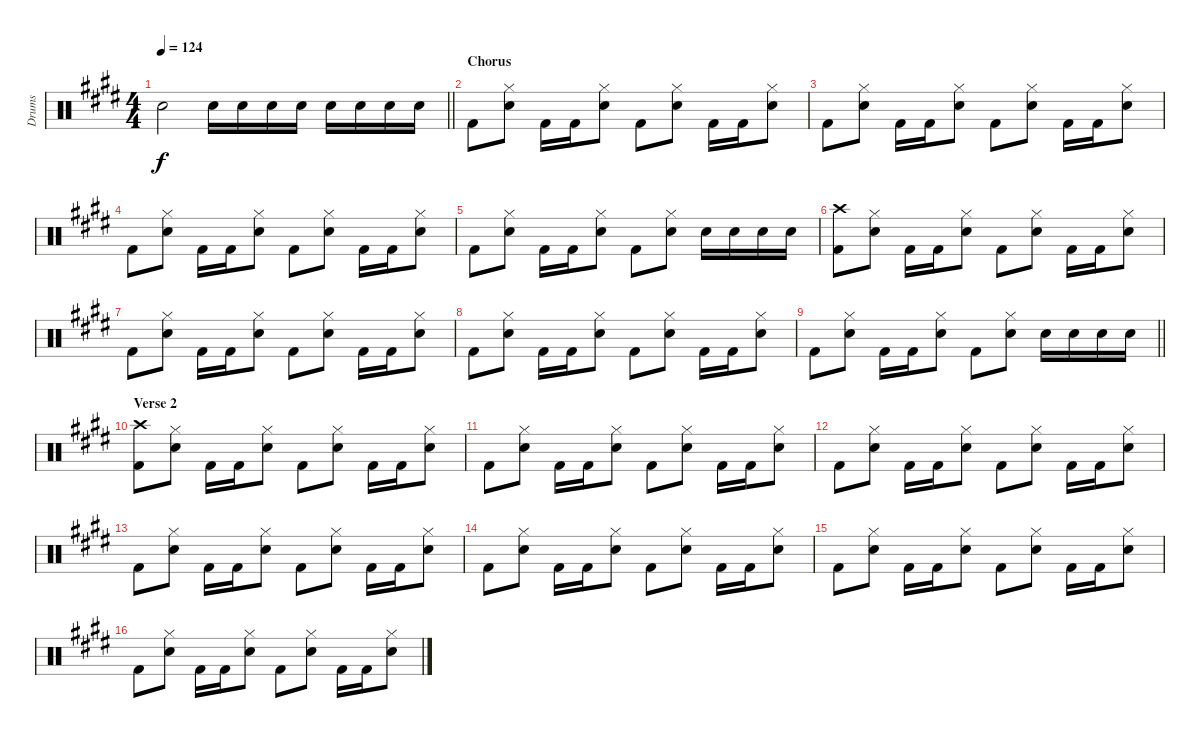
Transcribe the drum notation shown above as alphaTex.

\track ("Drums" "Drums") {instrument percussion}
\staff {score}
\articulation defaults
\ts (4 4)
\tempo 124
\clef neutral
\barLineRight lightlight
\ks c#minor "Snare (hit)"{t}.2{dy f} "Electric Snare (hit)".16 "Electric Snare (hit)".16 "Electric Snare (hit)".16 "Electric Snare (hit)".16 "Electric Snare (hit)".16 "Electric Snare (hit)".16 "Electric Snare (hit)".16 "Electric Snare (hit)".16
|
\section ("" "Chorus")
"Kick (hit) 2".8 ("Snare (hit) 2" "Hi-Hat (closed)").8 "Kick (hit) 2".16 "Kick (hit) 2".16 ("Snare (hit) 2" "Hi-Hat (closed)").8 "Kick (hit) 2".8 ("Snare (hit) 2" "Hi-Hat (closed)").8 "Kick (hit) 2".16 "Kick (hit) 2".16 ("Snare (hit) 2" "Hi-Hat (closed)").8 |
"Kick (hit) 2".8 ("Snare (hit) 2" "Hi-Hat (closed)").8 "Kick (hit) 2".16 "Kick (hit) 2".16 ("Snare (hit) 2" "Hi-Hat (closed)").8 "Kick (hit) 2".8 ("Snare (hit) 2" "Hi-Hat (closed)").8 "Kick (hit) 2".16 "Kick (hit) 2".16 ("Snare (hit) 2" "Hi-Hat (closed)").8 |
"Kick (hit) 2".8 ("Snare (hit) 2" "Hi-Hat (closed)").8 "Kick (hit) 2".16 "Kick (hit) 2".16 ("Snare (hit) 2" "Hi-Hat (closed)").8 "Kick (hit) 2".8 ("Snare (hit) 2" "Hi-Hat (closed)").8 "Kick (hit) 2".16 "Kick (hit) 2".16 ("Snare (hit) 2" "Hi-Hat (closed)").8 |
"Kick (hit) 2".8 ("Snare (hit) 2" "Hi-Hat (closed)").8 "Kick (hit) 2".16 "Kick (hit) 2".16 ("Snare (hit) 2" "Hi-Hat (closed)").8 "Kick (hit) 2".8 ("Snare (hit) 2" "Hi-Hat (closed)").8 "Electric Snare (hit)".16 "Electric Snare (hit)".16 "Electric Snare (hit)".16 "Electric Snare (hit)".16 |
("Kick (hit) 2" "Crash high (hit)").8 ("Snare (hit) 2" "Hi-Hat (closed)").8 "Kick (hit) 2".16 "Kick (hit) 2".16 ("Snare (hit) 2" "Hi-Hat (closed)").8 "Kick (hit) 2".8 ("Snare (hit) 2" "Hi-Hat (closed)").8 "Kick (hit) 2".16 "Kick (hit) 2".16 ("Snare (hit) 2" "Hi-Hat (closed)").8 |
"Kick (hit) 2".8 ("Snare (hit) 2" "Hi-Hat (closed)").8 "Kick (hit) 2".16 "Kick (hit) 2".16 ("Snare (hit) 2" "Hi-Hat (closed)").8 "Kick (hit) 2".8 ("Snare (hit) 2" "Hi-Hat (closed)").8 "Kick (hit) 2".16 "Kick (hit) 2".16 ("Snare (hit) 2" "Hi-Hat (closed)").8 |
"Kick (hit) 2".8 ("Snare (hit) 2" "Hi-Hat (closed)").8 "Kick (hit) 2".16 "Kick (hit) 2".16 ("Snare (hit) 2" "Hi-Hat (closed)").8 "Kick (hit) 2".8 ("Snare (hit) 2" "Hi-Hat (closed)").8 "Kick (hit) 2".16 "Kick (hit) 2".16 ("Snare (hit) 2" "Hi-Hat (closed)").8 |
\barLineRight lightlight "Kick (hit) 2".8
("Snare (hit) 2" "Hi-Hat (closed)").8 "Kick (hit) 2".16 "Kick (hit) 2".16 ("Snare (hit) 2" "Hi-Hat (closed)").8 "Kick (hit) 2".8 ("Snare (hit) 2" "Hi-Hat (closed)").8 "Electric Snare (hit)".16 "Electric Snare (hit)".16 "Electric Snare (hit)".16 "Electric Snare (hit)".16 |
\section ("" "Verse 2")
("Kick (hit) 2" "Crash high (hit)").8 ("Snare (hit) 2" "Hi-Hat (closed)").8 "Kick (hit) 2".16 "Kick (hit) 2".16 ("Snare (hit) 2" "Hi-Hat (closed)").8 "Kick (hit) 2".8 ("Snare (hit) 2" "Hi-Hat (closed)").8 "Kick (hit) 2".16 "Kick (hit) 2".16 ("Snare (hit) 2" "Hi-Hat (closed)").8 |
"Kick (hit) 2".8 ("Snare (hit) 2" "Hi-Hat (closed)").8 "Kick (hit) 2".16 "Kick (hit) 2".16 ("Snare (hit) 2" "Hi-Hat (closed)").8 "Kick (hit) 2".8 ("Snare (hit) 2" "Hi-Hat (closed)").8 "Kick (hit) 2".16 "Kick (hit) 2".16 ("Snare (hit) 2" "Hi-Hat (closed)").8 |
"Kick (hit) 2".8 ("Snare (hit) 2" "Hi-Hat (closed)").8 "Kick (hit) 2".16 "Kick (hit) 2".16 ("Snare (hit) 2" "Hi-Hat (closed)").8 "Kick (hit) 2".8 ("Snare (hit) 2" "Hi-Hat (closed)").8 "Kick (hit) 2".16 "Kick (hit) 2".16 ("Snare (hit) 2" "Hi-Hat (closed)").8 |
"Kick (hit) 2".8 ("Snare (hit) 2" "Hi-Hat (closed)").8 "Kick (hit) 2".16 "Kick (hit) 2".16 ("Snare (hit) 2" "Hi-Hat (closed)").8 "Kick (hit) 2".8 ("Snare (hit) 2" "Hi-Hat (closed)").8 "Kick (hit) 2".16 "Kick (hit) 2".16 ("Snare (hit) 2" "Hi-Hat (closed)").8 |
"Kick (hit) 2".8 ("Snare (hit) 2" "Hi-Hat (closed)").8 "Kick (hit) 2".16 "Kick (hit) 2".16 ("Snare (hit) 2" "Hi-Hat (closed)").8 "Kick (hit) 2".8 ("Snare (hit) 2" "Hi-Hat (closed)").8 "Kick (hit) 2".16 "Kick (hit) 2".16 ("Snare (hit) 2" "Hi-Hat (closed)").8 |
"Kick (hit) 2".8 ("Snare (hit) 2" "Hi-Hat (closed)").8 "Kick (hit) 2".16 "Kick (hit) 2".16 ("Snare (hit) 2" "Hi-Hat (closed)").8 "Kick (hit) 2".8 ("Snare (hit) 2" "Hi-Hat (closed)").8 "Kick (hit) 2".16 "Kick (hit) 2".16 ("Snare (hit) 2" "Hi-Hat (closed)").8 |
"Kick (hit) 2".8 ("Snare (hit) 2" "Hi-Hat (closed)").8 "Kick (hit) 2".16 "Kick (hit) 2".16 ("Snare (hit) 2" "Hi-Hat (closed)").8 "Kick (hit) 2".8 ("Snare (hit) 2" "Hi-Hat (closed)").8 "Kick (hit) 2".16 "Kick (hit) 2".16 ("Snare (hit) 2" "Hi-Hat (closed)").8
